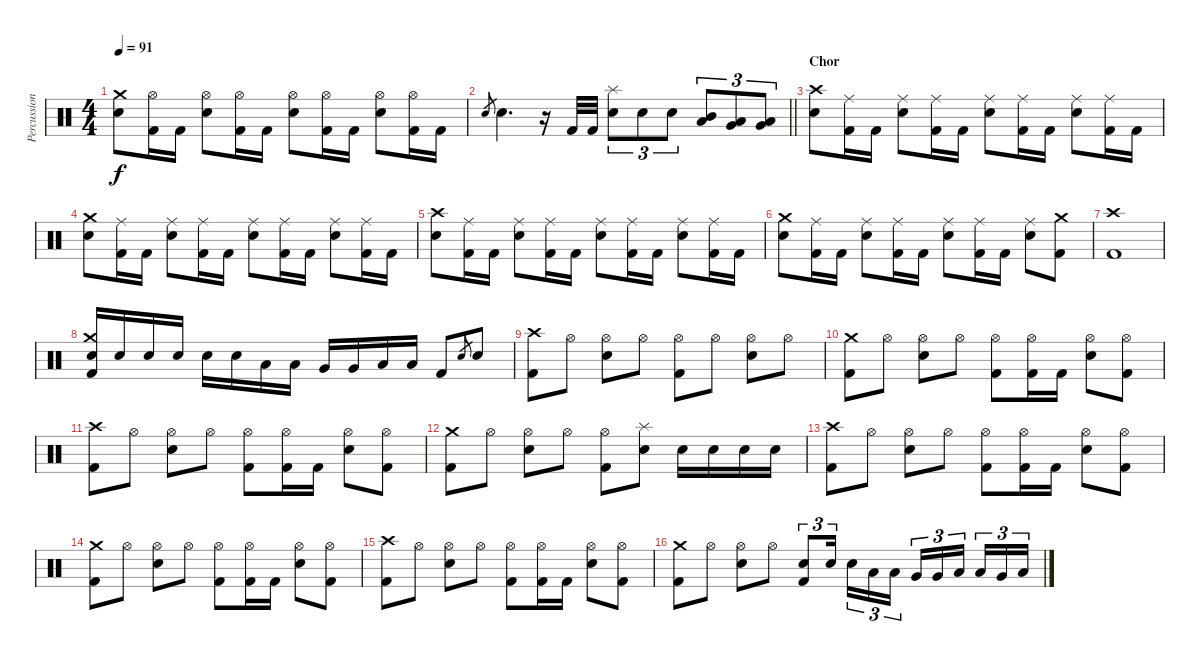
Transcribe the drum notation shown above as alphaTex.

\track ("Percussion" "Percussion") {instrument percussion}
\staff {score}
\articulation defaults
\ts (4 4)
\tempo 91
\clef neutral
\ks c
("Snare (hit) 2" "Crash medium (hit)").8{dy f} ("Hi-Hat (open)" "Kick (hit) 2").16 "Kick (hit) 2".16 ("Snare (hit) 2" "Hi-Hat (open)").8 ("Hi-Hat (open)" "Kick (hit) 2").16 "Kick (hit) 2".16 ("Snare (hit) 2" "Hi-Hat (open)").8 ("Hi-Hat (open)" "Kick (hit) 2").16 "Kick (hit) 2".16 ("Snare (hit) 2" "Hi-Hat (open)").8 ("Hi-Hat (open)" "Kick (hit) 2").16 "Kick (hit) 2".16 |
\barLineRight lightlight "Snare (hit) 2".8{gr} "Snare (hit) 2".4{d}
r.16 "Kick (hit) 2".32 "Kick (hit) 2".32 ("Snare (hit) 2" "Splash (hit)").8{tu (3 2)} "Snare (hit) 2".8{tu (3 2)} "Snare (hit) 2".8{tu (3 2)} ("Mid Tom (hit)" "Low Tom (hit)").8{tu (3 2)} ("Low Tom (hit)" "Very Low Tom (hit)").8{tu (3 2)} ("Very Low Tom (hit)" "Low Floor Tom (hit)").8{tu (3 2)} |
\section ("" "Chor")
("Snare (hit) 2" "Crash high (hit)").8 ("Ride (middle)" "Kick (hit) 2").16 "Kick (hit) 2".16 ("Snare (hit) 2" "Ride (middle)").8 ("Ride (middle)" "Kick (hit) 2").16 "Kick (hit) 2".16 ("Snare (hit) 2" "Ride (middle)").8 ("Ride (middle)" "Kick (hit) 2").16 "Kick (hit) 2".16 ("Snare (hit) 2" "Ride (middle)").8 ("Ride (middle)" "Kick (hit) 2").16 "Kick (hit) 2".16 |
("Snare (hit) 2" "Crash medium (hit)").8 ("Ride (middle)" "Kick (hit) 2").16 "Kick (hit) 2".16 ("Snare (hit) 2" "Ride (middle)").8 ("Ride (middle)" "Kick (hit) 2").16 "Kick (hit) 2".16 ("Snare (hit) 2" "Ride (middle)").8 ("Ride (middle)" "Kick (hit) 2").16 "Kick (hit) 2".16 ("Snare (hit) 2" "Ride (middle)").8 ("Ride (middle)" "Kick (hit) 2").16 "Kick (hit) 2".16 |
("Snare (hit) 2" "Crash high (hit)").8 ("Ride (middle)" "Kick (hit) 2").16 "Kick (hit) 2".16 ("Snare (hit) 2" "Ride (middle)").8 ("Ride (middle)" "Kick (hit) 2").16 "Kick (hit) 2".16 ("Snare (hit) 2" "Ride (middle)").8 ("Ride (middle)" "Kick (hit) 2").16 "Kick (hit) 2".16 ("Snare (hit) 2" "Ride (middle)").8 ("Ride (middle)" "Kick (hit) 2").16 "Kick (hit) 2".16 |
("Snare (hit) 2" "Crash medium (hit)").8 ("Ride (middle)" "Kick (hit) 2").16 "Kick (hit) 2".16 ("Snare (hit) 2" "Ride (middle)").8 ("Ride (middle)" "Kick (hit) 2").16 "Kick (hit) 2".16 ("Snare (hit) 2" "Ride (middle)").8 ("Ride (middle)" "Kick (hit) 2").16 "Kick (hit) 2".16 ("Snare (hit) 2" "Ride (middle)").8 ("Crash medium (hit)" "Kick (hit) 2").8 |
("Crash high (hit)" "Kick (hit) 2").1 |
("Snare (hit) 2" "Crash medium (hit)" "Kick (hit) 2").16 "Snare (hit) 2".16 "Snare (hit) 2".16 "Snare (hit) 2".16 "Snare (hit) 2".16 "Snare (hit) 2".16 "Low Tom (hit)".16 "Low Tom (hit)".16 "Very Low Tom (hit)".16 "Very Low Tom (hit)".16 "Low Floor Tom (hit)".16 "Low Floor Tom (hit)".16 "Kick (hit) 2".8 "Snare (hit) 2".8{gr} "Snare (hit) 2".8 |
("Crash high (hit)" "Kick (hit) 2").8 "Hi-Hat (open)".8 ("Snare (hit) 2" "Hi-Hat (open)").8 "Hi-Hat (open)".8 ("Hi-Hat (open)" "Kick (hit) 2").8 "Hi-Hat (open)".8 ("Snare (hit) 2" "Hi-Hat (open)").8 "Hi-Hat (open)".8 |
("Crash medium (hit)" "Kick (hit) 2").8 "Hi-Hat (open)".8 ("Snare (hit) 2" "Hi-Hat (open)").8 "Hi-Hat (open)".8 ("Hi-Hat (open)" "Kick (hit) 2").8 ("Hi-Hat (open)" "Kick (hit) 2").16 "Kick (hit) 2".16 ("Snare (hit) 2" "Hi-Hat (open)").8 ("Hi-Hat (open)" "Kick (hit) 2").8 |
("Crash high (hit)" "Kick (hit) 2").8 "Hi-Hat (open)".8 ("Snare (hit) 2" "Hi-Hat (open)").8 "Hi-Hat (open)".8 ("Hi-Hat (open)" "Kick (hit) 2").8 ("Hi-Hat (open)" "Kick (hit) 2").16 "Kick (hit) 2".16 ("Snare (hit) 2" "Hi-Hat (open)").8 ("Hi-Hat (open)" "Kick (hit) 2").8 |
("Crash medium (hit)" "Kick (hit) 2").8 "Hi-Hat (open)".8 ("Snare (hit) 2" "Hi-Hat (open)").8 "Hi-Hat (open)".8 ("Hi-Hat (open)" "Kick (hit) 2").8 ("Snare (hit) 2" "Splash (hit)").8 "Snare (hit) 2".16 "Snare (hit) 2".16 "Snare (hit) 2".16 "Snare (hit) 2".16 |
("Crash high (hit)" "Kick (hit) 2").8 "Hi-Hat (open)".8 ("Snare (hit) 2" "Hi-Hat (open)").8 "Hi-Hat (open)".8 ("Hi-Hat (open)" "Kick (hit) 2").8 ("Hi-Hat (open)" "Kick (hit) 2").16 "Kick (hit) 2".16 ("Snare (hit) 2" "Hi-Hat (open)").8 ("Hi-Hat (open)" "Kick (hit) 2").8 |
("Crash medium (hit)" "Kick (hit) 2").8 "Hi-Hat (open)".8 ("Snare (hit) 2" "Hi-Hat (open)").8 "Hi-Hat (open)".8 ("Hi-Hat (open)" "Kick (hit) 2").8 ("Hi-Hat (open)" "Kick (hit) 2").16 "Kick (hit) 2".16 ("Snare (hit) 2" "Hi-Hat (open)").8 ("Hi-Hat (open)" "Kick (hit) 2").8 |
("Crash high (hit)" "Kick (hit) 2").8 "Hi-Hat (open)".8 ("Snare (hit) 2" "Hi-Hat (open)").8 "Hi-Hat (open)".8 ("Hi-Hat (open)" "Kick (hit) 2").8 ("Hi-Hat (open)" "Kick (hit) 2").16 "Kick (hit) 2".16 ("Snare (hit) 2" "Hi-Hat (open)").8 ("Hi-Hat (open)" "Kick (hit) 2").8 |
("Crash medium (hit)" "Kick (hit) 2").8 "Hi-Hat (open)".8 ("Snare (hit) 2" "Hi-Hat (open)").8 "Hi-Hat (open)".8 ("Snare (hit) 2" "Kick (hit) 2").8{tu (3 2)} "Snare (hit) 2".16{tu (3 2) beam splitsecondary} "Snare (hit) 2".16{tu (3 2)} "Low Tom (hit)".16{tu (3 2)} "Low Tom (hit)".16{tu (3 2)} "Very Low Tom (hit)".16{tu (3 2)} "Very Low Tom (hit)".16{tu (3 2)} "Low Floor Tom (hit)".16{tu (3 2) beam splitsecondary} "Low Tom (hit)".16{tu (3 2)} "Very Low Tom (hit)".16{tu (3 2)} "Low Floor Tom (hit)".16{tu (3 2)}
